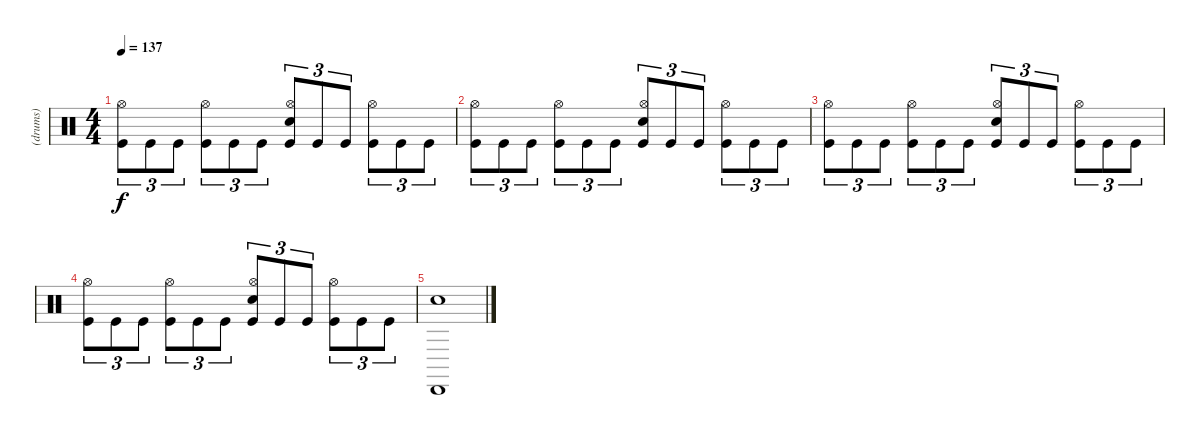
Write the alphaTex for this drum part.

\track ("(drums)" "(drums)") {instrument percussion}
\staff {score}
\articulation defaults
\ts (4 4)
\tempo 137
\clef neutral
\ks c
("Kick (hit)" "Hi-Hat (open)").8{tu (3 2) dy f} "Kick (hit)".8{tu (3 2)} "Kick (hit)".8{tu (3 2)} ("Kick (hit)" "Hi-Hat (open)").8{tu (3 2)} "Kick (hit)".8{tu (3 2)} "Kick (hit)".8{tu (3 2)} ("Kick (hit)" "Snare (hit) 2" "Hi-Hat (open)").8{tu (3 2)} "Kick (hit)".8{tu (3 2)} "Kick (hit)".8{tu (3 2)} ("Kick (hit)" "Hi-Hat (open)").8{tu (3 2)} "Kick (hit)".8{tu (3 2)} "Kick (hit)".8{tu (3 2)} |
("Kick (hit)" "Hi-Hat (open)").8{tu (3 2)} "Kick (hit)".8{tu (3 2)} "Kick (hit)".8{tu (3 2)} ("Kick (hit)" "Hi-Hat (open)").8{tu (3 2)} "Kick (hit)".8{tu (3 2)} "Kick (hit)".8{tu (3 2)} ("Kick (hit)" "Snare (hit) 2" "Hi-Hat (open)").8{tu (3 2)} "Kick (hit)".8{tu (3 2)} "Kick (hit)".8{tu (3 2)} ("Kick (hit)" "Hi-Hat (open)").8{tu (3 2)} "Kick (hit)".8{tu (3 2)} "Kick (hit)".8{tu (3 2)} |
("Kick (hit)" "Hi-Hat (open)").8{tu (3 2)} "Kick (hit)".8{tu (3 2)} "Kick (hit)".8{tu (3 2)} ("Kick (hit)" "Hi-Hat (open)").8{tu (3 2)} "Kick (hit)".8{tu (3 2)} "Kick (hit)".8{tu (3 2)} ("Kick (hit)" "Snare (hit) 2" "Hi-Hat (open)").8{tu (3 2)} "Kick (hit)".8{tu (3 2)} "Kick (hit)".8{tu (3 2)} ("Kick (hit)" "Hi-Hat (open)").8{tu (3 2)} "Kick (hit)".8{tu (3 2)} "Kick (hit)".8{tu (3 2)} |
("Kick (hit)" "Hi-Hat (open)").8{tu (3 2)} "Kick (hit)".8{tu (3 2)} "Kick (hit)".8{tu (3 2)} ("Kick (hit)" "Hi-Hat (open)").8{tu (3 2)} "Kick (hit)".8{tu (3 2)} "Kick (hit)".8{tu (3 2)} ("Kick (hit)" "Snare (hit) 2" "Hi-Hat (open)").8{tu (3 2)} "Kick (hit)".8{tu (3 2)} "Kick (hit)".8{tu (3 2)} ("Kick (hit)" "Hi-Hat (open)").8{tu (3 2)} "Kick (hit)".8{tu (3 2)} "Kick (hit)".8{tu (3 2)} |
("Cabasa (hit)" "Electric Snare (hit)").1
